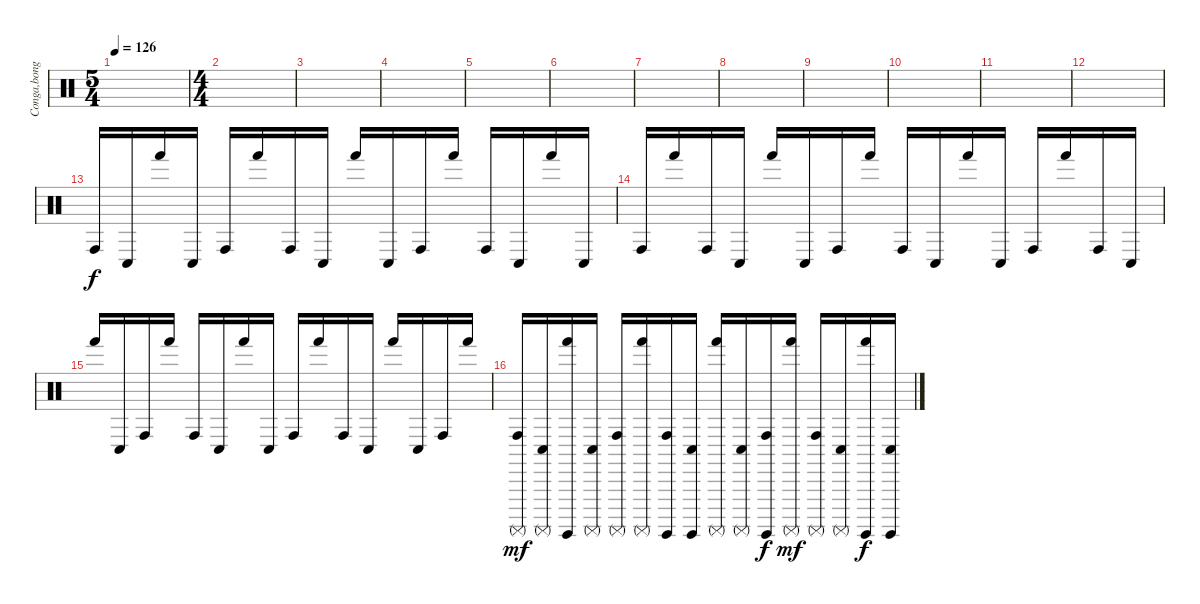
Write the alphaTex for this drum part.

\track ("Conga,bongo,surdo" "Conga,bong") {instrument percussion}
\staff {score}
\articulation defaults
\ts (5 4)
\tempo 126
\clef neutral
\ks c
|
\ts (4 4)
|
|
|
|
|
|
|
|
|
|
|
"Conga high (hit)".16 "Conga low (hit)".16 "Hand (hit)".16 "Conga low (hit)".16 "Conga high (hit)".16 "Hand (hit)".16 "Conga high (hit)".16 "Conga low (hit)".16 "Hand (hit)".16 "Conga low (hit)".16 "Conga high (hit)".16 "Hand (hit)".16 "Conga high (hit)".16 "Conga low (hit)".16 "Hand (hit)".16 "Conga low (hit)".16 |
"Conga high (hit)".16 "Hand (hit)".16 "Conga high (hit)".16 "Conga low (hit)".16 "Hand (hit)".16 "Conga low (hit)".16 "Conga high (hit)".16 "Hand (hit)".16 "Conga high (hit)".16 "Conga low (hit)".16 "Hand (hit)".16 "Conga low (hit)".16 "Conga high (hit)".16 "Hand (hit)".16 "Conga high (hit)".16 "Conga low (hit)".16 |
"Hand (hit)".16 "Conga low (hit)".16 "Conga high (hit)".16 "Hand (hit)".16 "Conga high (hit)".16 "Conga low (hit)".16 "Hand (hit)".16 "Conga low (hit)".16 "Conga high (hit)".16 "Hand (hit)".16 "Conga high (hit)".16 "Conga low (hit)".16 "Hand (hit)".16 "Conga low (hit)".16 "Conga high (hit)".16 "Hand (hit)".16 |
("Conga high (hit)" "Surdo (mute)").16{dy mf} ("Conga low (hit)" "Surdo (mute)").16 ("Hand (hit)" "Surdo (hit)").16 ("Conga low (hit)" "Surdo (mute)").16 ("Conga high (hit)" "Surdo (mute)").16 ("Hand (hit)" "Surdo (mute)").16 ("Conga high (hit)" "Surdo (hit)").16 ("Conga low (hit)" "Surdo (hit)").16 ("Hand (hit)" "Surdo (mute)").16 ("Conga low (hit)" "Surdo (mute)").16 ("Conga high (hit)" "Surdo (hit)").16{dy f} ("Hand (hit)" "Surdo (mute)").16{dy mf} ("Conga high (hit)" "Surdo (mute)").16 ("Conga low (hit)" "Surdo (mute)").16 ("Hand (hit)" "Surdo (hit)").16{dy f} ("Conga low (hit)" "Surdo (hit)").16
